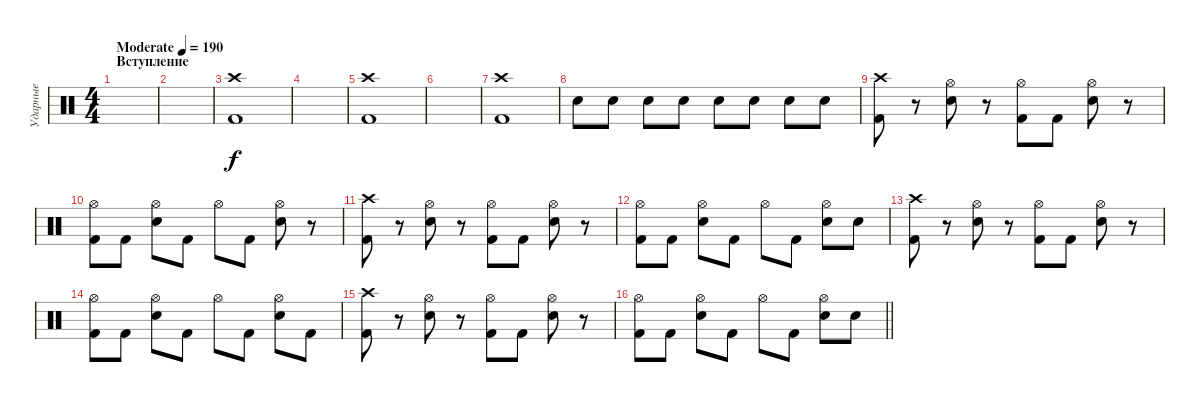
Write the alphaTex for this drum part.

\track ("Ударные" "Ударные") {instrument percussion}
\staff {score}
\articulation defaults
\ts (4 4)
\section ("" "Вступление ")
\tempo (190 "Moderate")
\clef neutral
\ks c
|
|
("Crash high (hit)" "Kick (hit) 2").1 |
|
("Crash high (hit)" "Kick (hit) 2").1 |
|
("Crash high (hit)" "Kick (hit) 2").1 |
"Electric Snare (hit)".8 "Electric Snare (hit)".8 "Electric Snare (hit)".8 "Electric Snare (hit)".8 "Electric Snare (hit)".8 "Electric Snare (hit)".8 "Electric Snare (hit)".8 "Electric Snare (hit)".8 |
("Crash high (hit)" "Kick (hit) 2").8 r.8 ("Hi-Hat (open)" "Electric Snare (hit)").8 r.8 ("Hi-Hat (open)" "Kick (hit) 2").8 "Kick (hit) 2".8 ("Hi-Hat (open)" "Electric Snare (hit)").8 r.8 |
("Hi-Hat (open)" "Kick (hit) 2").8 "Kick (hit) 2".8 ("Hi-Hat (open)" "Electric Snare (hit)").8 "Kick (hit) 2".8 "Hi-Hat (open)".8 "Kick (hit) 2".8 ("Hi-Hat (open)" "Electric Snare (hit)").8 r.8 |
("Crash high (hit)" "Kick (hit) 2").8 r.8 ("Hi-Hat (open)" "Electric Snare (hit)").8 r.8 ("Hi-Hat (open)" "Kick (hit) 2").8 "Kick (hit) 2".8 ("Hi-Hat (open)" "Electric Snare (hit)").8 r.8 |
("Hi-Hat (open)" "Kick (hit) 2").8 "Kick (hit) 2".8 ("Hi-Hat (open)" "Electric Snare (hit)").8 "Kick (hit) 2".8 "Hi-Hat (open)".8 "Kick (hit) 2".8 ("Hi-Hat (open)" "Electric Snare (hit)").8 "Electric Snare (hit)".8 |
("Crash high (hit)" "Kick (hit) 2").8 r.8 ("Hi-Hat (open)" "Electric Snare (hit)").8 r.8 ("Hi-Hat (open)" "Kick (hit) 2").8 "Kick (hit) 2".8 ("Hi-Hat (open)" "Electric Snare (hit)").8 r.8 |
("Hi-Hat (open)" "Kick (hit) 2").8 "Kick (hit) 2".8 ("Hi-Hat (open)" "Electric Snare (hit)").8 "Kick (hit) 2".8 "Hi-Hat (open)".8 "Kick (hit) 2".8 ("Hi-Hat (open)" "Electric Snare (hit)").8 "Kick (hit) 2".8 |
("Crash high (hit)" "Kick (hit) 2").8 r.8 ("Hi-Hat (open)" "Electric Snare (hit)").8 r.8 ("Hi-Hat (open)" "Kick (hit) 2").8 "Kick (hit) 2".8 ("Hi-Hat (open)" "Electric Snare (hit)").8 r.8 |
\barLineRight lightlight
("Hi-Hat (open)" "Kick (hit) 2").8 "Kick (hit) 2".8 ("Hi-Hat (open)" "Electric Snare (hit)").8 "Kick (hit) 2".8 "Hi-Hat (open)".8 "Kick (hit) 2".8 ("Hi-Hat (open)" "Electric Snare (hit)").8 "Electric Snare (hit)".8
